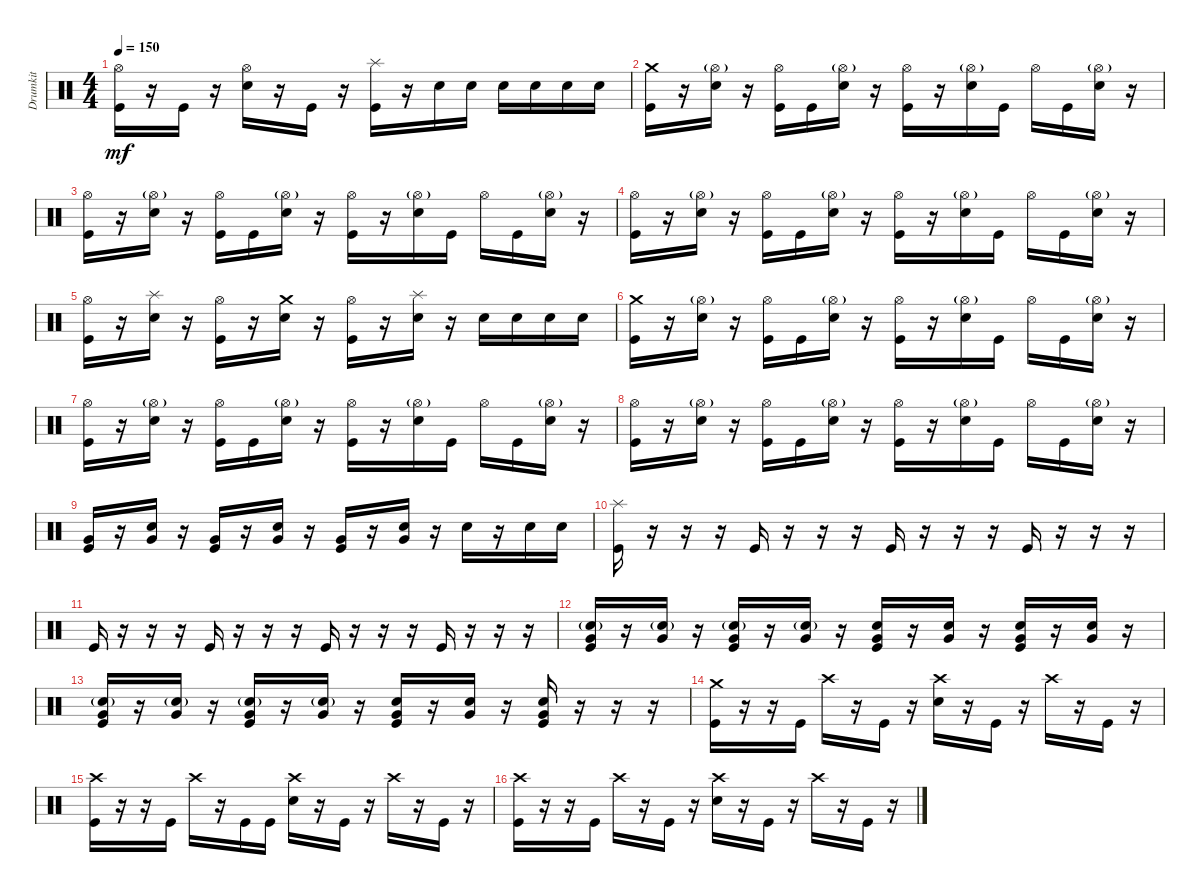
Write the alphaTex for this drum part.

\track ("Drumkit" "Drumkit") {instrument percussion}
\staff {score}
\articulation defaults
\ts (4 4)
\tempo 150
\clef neutral
\ks c
("Kick (hit)" "Hi-Hat (open)").16{dy mf} r.16 "Kick (hit)".16 r.16 ("Snare (hit) 2" "Hi-Hat (open)").16 r.16 "Kick (hit)".16 r.16 ("Kick (hit)" "Splash (hit)").16 r.16 "Snare (hit) 2".16 "Snare (hit) 2".16 "Snare (hit) 2".16 "Snare (hit) 2".16 "Snare (hit) 2".16 "Snare (hit) 2".16 |
("Kick (hit)" "Crash medium (hit)").16 r.16 ("Hi-Hat (open)"{g} "Snare (hit) 2").16 r.16 ("Hi-Hat (open)" "Kick (hit)").16 "Kick (hit)".16 ("Hi-Hat (open)"{g} "Snare (hit) 2").16 r.16 ("Hi-Hat (open)" "Kick (hit)").16 r.16 ("Hi-Hat (open)"{g} "Snare (hit) 2").16 "Kick (hit)".16 "Hi-Hat (open)".16 "Kick (hit)".16 ("Hi-Hat (open)"{g} "Snare (hit) 2").16 r.16 |
("Kick (hit)" "Hi-Hat (open)").16 r.16 ("Hi-Hat (open)"{g} "Snare (hit) 2").16 r.16 ("Hi-Hat (open)" "Kick (hit)").16 "Kick (hit)".16 ("Hi-Hat (open)"{g} "Snare (hit) 2").16 r.16 ("Hi-Hat (open)" "Kick (hit)").16 r.16 ("Hi-Hat (open)"{g} "Snare (hit) 2").16 "Kick (hit)".16 "Hi-Hat (open)".16 "Kick (hit)".16 ("Hi-Hat (open)"{g} "Snare (hit) 2").16 r.16 |
("Kick (hit)" "Hi-Hat (open)").16 r.16 ("Hi-Hat (open)"{g} "Snare (hit) 2").16 r.16 ("Hi-Hat (open)" "Kick (hit)").16 "Kick (hit)".16 ("Hi-Hat (open)"{g} "Snare (hit) 2").16 r.16 ("Hi-Hat (open)" "Kick (hit)").16 r.16 ("Hi-Hat (open)"{g} "Snare (hit) 2").16 "Kick (hit)".16 "Hi-Hat (open)".16 "Kick (hit)".16 ("Hi-Hat (open)"{g} "Snare (hit) 2").16 r.16 |
("Kick (hit)" "Hi-Hat (open)").16 r.16 ("Snare (hit) 2" "Splash (hit)").16 r.16 ("Hi-Hat (open)" "Kick (hit)").16 r.16 ("Snare (hit) 2" "Crash medium (hit)").16 r.16 ("Hi-Hat (open)" "Kick (hit)").16 r.16 ("Snare (hit) 2" "Splash (hit)").16 r.16 "Snare (hit) 2".16 "Snare (hit) 2".16 "Snare (hit) 2".16 "Snare (hit) 2".16 |
("Kick (hit)" "Crash medium (hit)").16 r.16 ("Hi-Hat (open)"{g} "Snare (hit) 2").16 r.16 ("Hi-Hat (open)" "Kick (hit)").16 "Kick (hit)".16 ("Hi-Hat (open)"{g} "Snare (hit) 2").16 r.16 ("Hi-Hat (open)" "Kick (hit)").16 r.16 ("Hi-Hat (open)"{g} "Snare (hit) 2").16 "Kick (hit)".16 "Hi-Hat (open)".16 "Kick (hit)".16 ("Hi-Hat (open)"{g} "Snare (hit) 2").16 r.16 |
("Kick (hit)" "Hi-Hat (open)").16 r.16 ("Hi-Hat (open)"{g} "Snare (hit) 2").16 r.16 ("Hi-Hat (open)" "Kick (hit)").16 "Kick (hit)".16 ("Hi-Hat (open)"{g} "Snare (hit) 2").16 r.16 ("Hi-Hat (open)" "Kick (hit)").16 r.16 ("Hi-Hat (open)"{g} "Snare (hit) 2").16 "Kick (hit)".16 "Hi-Hat (open)".16 "Kick (hit)".16 ("Hi-Hat (open)"{g} "Snare (hit) 2").16 r.16 |
("Kick (hit)" "Hi-Hat (open)").16 r.16 ("Hi-Hat (open)"{g} "Snare (hit) 2").16 r.16 ("Hi-Hat (open)" "Kick (hit)").16 "Kick (hit)".16 ("Hi-Hat (open)"{g} "Snare (hit) 2").16 r.16 ("Hi-Hat (open)" "Kick (hit)").16 r.16 ("Hi-Hat (open)"{g} "Snare (hit) 2").16 "Kick (hit)".16 "Hi-Hat (open)".16 "Kick (hit)".16 ("Hi-Hat (open)"{g} "Snare (hit) 2").16 r.16 |
("Kick (hit)" "Very Low Tom (hit)").16 r.16 ("Snare (hit) 2" "Very Low Tom (hit)").16 r.16 ("Kick (hit)" "Very Low Tom (hit)").16 r.16 ("Snare (hit) 2" "Very Low Tom (hit)").16 r.16 ("Kick (hit)" "Very Low Tom (hit)").16 r.16 ("Snare (hit) 2" "Very Low Tom (hit)").16 r.16 "Snare (hit) 2".16 r.16 "Snare (hit) 2".16 "Snare (hit) 2".16 |
("Splash (hit)" "Kick (hit)").16 r.16 r.16 r.16 "Kick (hit)".16 r.16 r.16 r.16 "Kick (hit)".16 r.16 r.16 r.16 "Kick (hit)".16 r.16 r.16 r.16 |
"Kick (hit)".16 r.16 r.16 r.16 "Kick (hit)".16 r.16 r.16 r.16 "Kick (hit)".16 r.16 r.16 r.16 "Kick (hit)".16 r.16 r.16 r.16 |
("Kick (hit)" "Snare (hit) 2"{g} "Very Low Tom (hit)").16 r.16 ("Very Low Tom (hit)" "Snare (hit) 2"{g}).16 r.16 ("Kick (hit)" "Snare (hit) 2"{g} "Very Low Tom (hit)").16 r.16 ("Very Low Tom (hit)" "Snare (hit) 2"{g}).16 r.16 ("Kick (hit)" "Snare (hit) 2" "Very Low Tom (hit)").16 r.16 ("Very Low Tom (hit)" "Snare (hit) 2").16 r.16 ("Kick (hit)" "Snare (hit) 2" "Very Low Tom (hit)").16 r.16 ("Snare (hit) 2" "Very Low Tom (hit)").16 r.16 |
("Kick (hit)" "Snare (hit) 2"{g} "Very Low Tom (hit)").16 r.16 ("Snare (hit) 2"{g} "Very Low Tom (hit)").16 r.16 ("Kick (hit)" "Snare (hit) 2"{g} "Very Low Tom (hit)").16 r.16 ("Snare (hit) 2"{g} "Very Low Tom (hit)").16 r.16 ("Kick (hit)" "Snare (hit) 2" "Very Low Tom (hit)").16 r.16 ("Snare (hit) 2" "Very Low Tom (hit)").16 r.16 ("Kick (hit)" "Snare (hit) 2" "Very Low Tom (hit)").16 r.16 r.16 r.16 |
("Kick (hit)" "Crash medium (hit)").16 r.16 r.16 "Kick (hit)".16 "Crash high (hit)".16 r.16 "Kick (hit)".16 r.16 ("Snare (hit) 2" "Crash high (hit)").16 r.16 "Kick (hit)".16 r.16 "Crash high (hit)".16 r.16 "Kick (hit)".16 r.16 |
("Kick (hit)" "Crash high (hit)").16 r.16 r.16 "Kick (hit)".16 "Crash high (hit)".16 r.16 "Kick (hit)".16 "Kick (hit)".16 ("Snare (hit) 2" "Crash high (hit)").16 r.16 "Kick (hit)".16 r.16 "Crash high (hit)".16 r.16 "Kick (hit)".16 r.16 |
("Kick (hit)" "Crash high (hit)").16 r.16 r.16 "Kick (hit)".16 "Crash high (hit)".16 r.16 "Kick (hit)".16 r.16 ("Snare (hit) 2" "Crash high (hit)").16 r.16 "Kick (hit)".16 r.16 "Crash high (hit)".16 r.16 "Kick (hit)".16 r.16
